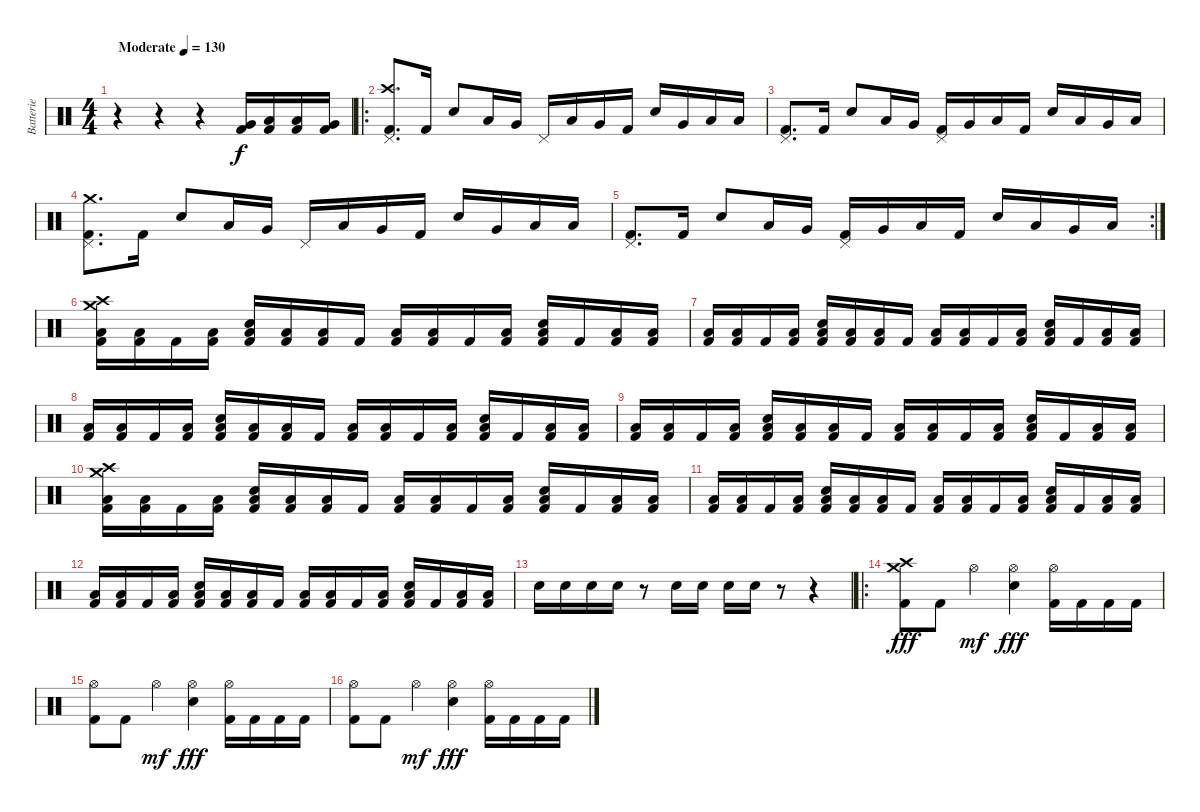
\track ("Batterie" "Batterie") {instrument percussion}
\staff {score}
\articulation defaults
\ts (4 4)
\tempo (130 "Moderate")
\clef neutral
\ks c
r.4{dy f} r.4 r.4 ("Very Low Tom (hit)" "Kick (hit) 2").16 ("Low Floor Tom (hit)" "Kick (hit) 2").16 ("Low Floor Tom (hit)" "Kick (hit) 2").16 ("Very Low Tom (hit)" "Kick (hit) 2").16 |
\ro
("Crash high (hit)" "Pedal Hi-Hat (hit)" "Kick (hit) 2").8{d} "Kick (hit) 2".16 "Electric Snare (hit)".8 "Low Tom (hit)".16 "Very Low Tom (hit)".16 "Pedal Hi-Hat (hit)".16 "Low Tom (hit)".16 "Very Low Tom (hit)".16 "Kick (hit) 2".16 "Electric Snare (hit)".16 "Very Low Tom (hit)".16 "Low Floor Tom (hit)".16 "Low Floor Tom (hit)".16 |
("Pedal Hi-Hat (hit)" "Kick (hit) 2").8{d} "Kick (hit) 2".16 "Electric Snare (hit)".8 "Low Tom (hit)".16 "Very Low Tom (hit)".16 ("Pedal Hi-Hat (hit)" "Kick (hit) 2").16 "Very Low Tom (hit)".16 "Low Floor Tom (hit)".16 "Kick (hit) 2".16 "Electric Snare (hit)".16 "Low Tom (hit)".16 "Very Low Tom (hit)".16 "Low Floor Tom (hit)".16 |
("Crash medium (hit)" "Pedal Hi-Hat (hit)" "Kick (hit) 2").8{d} "Kick (hit) 2".16 "Electric Snare (hit)".8 "Low Tom (hit)".16 "Very Low Tom (hit)".16 "Pedal Hi-Hat (hit)".16 "Low Tom (hit)".16 "Very Low Tom (hit)".16 "Kick (hit) 2".16 "Electric Snare (hit)".16 "Very Low Tom (hit)".16 "Low Floor Tom (hit)".16 "Low Floor Tom (hit)".16 |
\rc 2
("Pedal Hi-Hat (hit)" "Kick (hit) 2").8{d} "Kick (hit) 2".16 "Electric Snare (hit)".8 "Low Tom (hit)".16 "Very Low Tom (hit)".16 ("Pedal Hi-Hat (hit)" "Kick (hit) 2").16 "Very Low Tom (hit)".16 "Low Floor Tom (hit)".16 "Kick (hit) 2".16 "Electric Snare (hit)".16 "Low Tom (hit)".16 "Very Low Tom (hit)".16 "Low Floor Tom (hit)".16 |
("Crash high (hit)" "Crash medium (hit)" "Kick (hit) 2" "Low Floor Tom (hit)").16 ("Kick (hit) 2" "Low Floor Tom (hit)").16 "Kick (hit) 2".16 ("Kick (hit) 2" "Low Floor Tom (hit)").16 ("Electric Snare (hit)" "Kick (hit) 2" "Low Floor Tom (hit)").16 ("Kick (hit) 2" "Low Floor Tom (hit)").16 ("Kick (hit) 2" "Low Floor Tom (hit)").16 "Kick (hit) 2".16 ("Kick (hit) 2" "Low Floor Tom (hit)").16 ("Kick (hit) 2" "Low Floor Tom (hit)").16 "Kick (hit) 2".16 ("Kick (hit) 2" "Low Floor Tom (hit)").16 ("Electric Snare (hit)" "Kick (hit) 2" "Low Floor Tom (hit)").16 "Kick (hit) 2".16 ("Kick (hit) 2" "Low Floor Tom (hit)").16 ("Kick (hit) 2" "Low Floor Tom (hit)").16 |
("Kick (hit) 2" "Low Floor Tom (hit)").16 ("Kick (hit) 2" "Low Floor Tom (hit)").16 "Kick (hit) 2".16 ("Kick (hit) 2" "Low Floor Tom (hit)").16 ("Electric Snare (hit)" "Kick (hit) 2" "Low Floor Tom (hit)").16 ("Kick (hit) 2" "Low Floor Tom (hit)").16 ("Kick (hit) 2" "Low Floor Tom (hit)").16 "Kick (hit) 2".16 ("Kick (hit) 2" "Low Floor Tom (hit)").16 ("Kick (hit) 2" "Low Floor Tom (hit)").16 "Kick (hit) 2".16 ("Kick (hit) 2" "Low Floor Tom (hit)").16 ("Electric Snare (hit)" "Kick (hit) 2" "Low Floor Tom (hit)").16 "Kick (hit) 2".16 ("Kick (hit) 2" "Low Floor Tom (hit)").16 ("Kick (hit) 2" "Low Floor Tom (hit)").16 |
("Kick (hit) 2" "Low Floor Tom (hit)").16 ("Kick (hit) 2" "Low Floor Tom (hit)").16 "Kick (hit) 2".16 ("Kick (hit) 2" "Low Floor Tom (hit)").16 ("Electric Snare (hit)" "Kick (hit) 2" "Low Floor Tom (hit)").16 ("Kick (hit) 2" "Low Floor Tom (hit)").16 ("Kick (hit) 2" "Low Floor Tom (hit)").16 "Kick (hit) 2".16 ("Kick (hit) 2" "Low Floor Tom (hit)").16 ("Kick (hit) 2" "Low Floor Tom (hit)").16 "Kick (hit) 2".16 ("Kick (hit) 2" "Low Floor Tom (hit)").16 ("Electric Snare (hit)" "Kick (hit) 2" "Low Floor Tom (hit)").16 "Kick (hit) 2".16 ("Kick (hit) 2" "Low Floor Tom (hit)").16 ("Kick (hit) 2" "Low Floor Tom (hit)").16 |
("Kick (hit) 2" "Low Floor Tom (hit)").16 ("Kick (hit) 2" "Low Floor Tom (hit)").16 "Kick (hit) 2".16 ("Kick (hit) 2" "Low Floor Tom (hit)").16 ("Electric Snare (hit)" "Kick (hit) 2" "Low Floor Tom (hit)").16 ("Kick (hit) 2" "Low Floor Tom (hit)").16 ("Kick (hit) 2" "Low Floor Tom (hit)").16 "Kick (hit) 2".16 ("Kick (hit) 2" "Low Floor Tom (hit)").16 ("Kick (hit) 2" "Low Floor Tom (hit)").16 "Kick (hit) 2".16 ("Kick (hit) 2" "Low Floor Tom (hit)").16 ("Electric Snare (hit)" "Kick (hit) 2" "Low Floor Tom (hit)").16 "Kick (hit) 2".16 ("Kick (hit) 2" "Low Floor Tom (hit)").16 ("Kick (hit) 2" "Low Floor Tom (hit)").16 |
("Crash high (hit)" "Crash medium (hit)" "Kick (hit) 2" "Low Floor Tom (hit)").16 ("Kick (hit) 2" "Low Floor Tom (hit)").16 "Kick (hit) 2".16 ("Kick (hit) 2" "Low Floor Tom (hit)").16 ("Electric Snare (hit)" "Kick (hit) 2" "Low Floor Tom (hit)").16 ("Kick (hit) 2" "Low Floor Tom (hit)").16 ("Kick (hit) 2" "Low Floor Tom (hit)").16 "Kick (hit) 2".16 ("Kick (hit) 2" "Low Floor Tom (hit)").16 ("Kick (hit) 2" "Low Floor Tom (hit)").16 "Kick (hit) 2".16 ("Kick (hit) 2" "Low Floor Tom (hit)").16 ("Electric Snare (hit)" "Kick (hit) 2" "Low Floor Tom (hit)").16 "Kick (hit) 2".16 ("Kick (hit) 2" "Low Floor Tom (hit)").16 ("Kick (hit) 2" "Low Floor Tom (hit)").16 |
("Kick (hit) 2" "Low Floor Tom (hit)").16 ("Kick (hit) 2" "Low Floor Tom (hit)").16 "Kick (hit) 2".16 ("Kick (hit) 2" "Low Floor Tom (hit)").16 ("Electric Snare (hit)" "Kick (hit) 2" "Low Floor Tom (hit)").16 ("Kick (hit) 2" "Low Floor Tom (hit)").16 ("Kick (hit) 2" "Low Floor Tom (hit)").16 "Kick (hit) 2".16 ("Kick (hit) 2" "Low Floor Tom (hit)").16 ("Kick (hit) 2" "Low Floor Tom (hit)").16 "Kick (hit) 2".16 ("Kick (hit) 2" "Low Floor Tom (hit)").16 ("Electric Snare (hit)" "Kick (hit) 2" "Low Floor Tom (hit)").16 "Kick (hit) 2".16 ("Kick (hit) 2" "Low Floor Tom (hit)").16 ("Kick (hit) 2" "Low Floor Tom (hit)").16 |
("Kick (hit) 2" "Low Floor Tom (hit)").16 ("Kick (hit) 2" "Low Floor Tom (hit)").16 "Kick (hit) 2".16 ("Kick (hit) 2" "Low Floor Tom (hit)").16 ("Electric Snare (hit)" "Kick (hit) 2" "Low Floor Tom (hit)").16 ("Kick (hit) 2" "Low Floor Tom (hit)").16 ("Kick (hit) 2" "Low Floor Tom (hit)").16 "Kick (hit) 2".16 ("Kick (hit) 2" "Low Floor Tom (hit)").16 ("Kick (hit) 2" "Low Floor Tom (hit)").16 "Kick (hit) 2".16 ("Kick (hit) 2" "Low Floor Tom (hit)").16 ("Electric Snare (hit)" "Kick (hit) 2" "Low Floor Tom (hit)").16 "Kick (hit) 2".16 ("Kick (hit) 2" "Low Floor Tom (hit)").16 ("Kick (hit) 2" "Low Floor Tom (hit)").16 |
"Electric Snare (hit)".16 "Electric Snare (hit)".16 "Electric Snare (hit)".16 "Electric Snare (hit)".16 r.8 "Electric Snare (hit)".16 "Electric Snare (hit)".16 "Electric Snare (hit)".16 "Electric Snare (hit)".16 r.8 r.4 |
\ro
("Crash high (hit)" "Crash medium (hit)" "Kick (hit) 2").8{dy fff} "Kick (hit) 2".8 "Hi-Hat (open)".4{dy mf} ("Hi-Hat (open)" "Electric Snare (hit)").4{dy fff} ("Hi-Hat (open)" "Kick (hit) 2").16 "Kick (hit) 2".16 "Kick (hit) 2".16 "Kick (hit) 2".16 |
("Hi-Hat (open)" "Kick (hit) 2").8 "Kick (hit) 2".8 "Hi-Hat (open)".4{dy mf} ("Hi-Hat (open)" "Electric Snare (hit)").4{dy fff} ("Hi-Hat (open)" "Kick (hit) 2").16 "Kick (hit) 2".16 "Kick (hit) 2".16 "Kick (hit) 2".16 |
("Hi-Hat (open)" "Kick (hit) 2").8 "Kick (hit) 2".8 "Hi-Hat (open)".4{dy mf} ("Hi-Hat (open)" "Electric Snare (hit)").4{dy fff} ("Hi-Hat (open)" "Kick (hit) 2").16 "Kick (hit) 2".16 "Kick (hit) 2".16 "Kick (hit) 2".16
